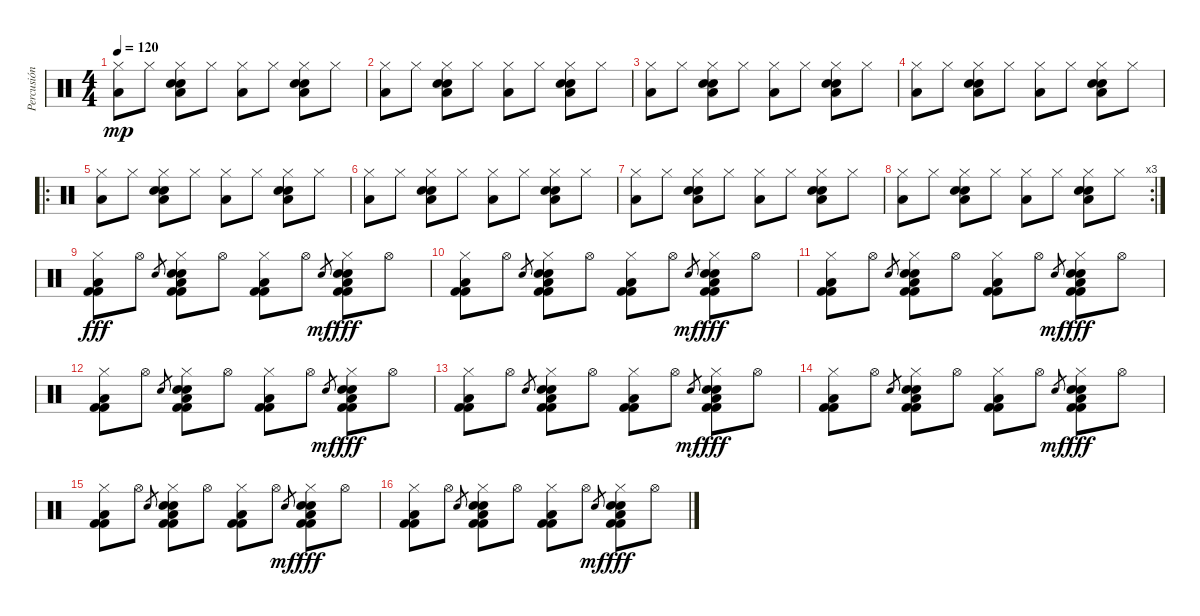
\track ("Percusión I" "Percusión ") {instrument percussion}
\staff {score}
\articulation defaults
\ts (4 4)
\tempo 120
\clef neutral
\ks c
("Hi-Hat (closed)" "Low Floor Tom (hit)").8{dy mp} "Hi-Hat (closed)".8 ("Hi-Hat (closed)" "Electric Snare (hit)" "Hand Clap (hit)" "Low Floor Tom (hit)").8 "Hi-Hat (closed)".8 ("Hi-Hat (closed)" "Low Floor Tom (hit)").8 "Hi-Hat (closed)".8 ("Hi-Hat (closed)" "Electric Snare (hit)" "Hand Clap (hit)" "Low Floor Tom (hit)").8 "Hi-Hat (closed)".8 |
("Hi-Hat (closed)" "Low Floor Tom (hit)").8 "Hi-Hat (closed)".8 ("Hi-Hat (closed)" "Electric Snare (hit)" "Hand Clap (hit)" "Low Floor Tom (hit)").8 "Hi-Hat (closed)".8 ("Hi-Hat (closed)" "Low Floor Tom (hit)").8 "Hi-Hat (closed)".8 ("Hi-Hat (closed)" "Electric Snare (hit)" "Hand Clap (hit)" "Low Floor Tom (hit)").8 "Hi-Hat (closed)".8 |
("Hi-Hat (closed)" "Low Floor Tom (hit)").8 "Hi-Hat (closed)".8 ("Hi-Hat (closed)" "Electric Snare (hit)" "Hand Clap (hit)" "Low Floor Tom (hit)").8 "Hi-Hat (closed)".8 ("Hi-Hat (closed)" "Low Floor Tom (hit)").8 "Hi-Hat (closed)".8 ("Hi-Hat (closed)" "Electric Snare (hit)" "Hand Clap (hit)" "Low Floor Tom (hit)").8 "Hi-Hat (closed)".8 |
("Hi-Hat (closed)" "Low Floor Tom (hit)").8 "Hi-Hat (closed)".8 ("Hi-Hat (closed)" "Electric Snare (hit)" "Hand Clap (hit)" "Low Floor Tom (hit)").8 "Hi-Hat (closed)".8 ("Hi-Hat (closed)" "Low Floor Tom (hit)").8 "Hi-Hat (closed)".8 ("Hi-Hat (closed)" "Electric Snare (hit)" "Hand Clap (hit)" "Low Floor Tom (hit)").8 "Hi-Hat (closed)".8 |
\ro
("Hi-Hat (closed)" "Low Floor Tom (hit)").8 "Hi-Hat (closed)".8 ("Hi-Hat (closed)" "Electric Snare (hit)" "Hand Clap (hit)" "Low Floor Tom (hit)").8 "Hi-Hat (closed)".8 ("Hi-Hat (closed)" "Low Floor Tom (hit)").8 "Hi-Hat (closed)".8 ("Hi-Hat (closed)" "Electric Snare (hit)" "Hand Clap (hit)" "Low Floor Tom (hit)").8 "Hi-Hat (closed)".8 |
("Hi-Hat (closed)" "Low Floor Tom (hit)").8 "Hi-Hat (closed)".8 ("Hi-Hat (closed)" "Electric Snare (hit)" "Hand Clap (hit)" "Low Floor Tom (hit)").8 "Hi-Hat (closed)".8 ("Hi-Hat (closed)" "Low Floor Tom (hit)").8 "Hi-Hat (closed)".8 ("Hi-Hat (closed)" "Electric Snare (hit)" "Hand Clap (hit)" "Low Floor Tom (hit)").8 "Hi-Hat (closed)".8 |
("Hi-Hat (closed)" "Low Floor Tom (hit)").8 "Hi-Hat (closed)".8 ("Hi-Hat (closed)" "Electric Snare (hit)" "Hand Clap (hit)" "Low Floor Tom (hit)").8 "Hi-Hat (closed)".8 ("Hi-Hat (closed)" "Low Floor Tom (hit)").8 "Hi-Hat (closed)".8 ("Hi-Hat (closed)" "Electric Snare (hit)" "Hand Clap (hit)" "Low Floor Tom (hit)").8 "Hi-Hat (closed)".8 |
\rc 3
("Hi-Hat (closed)" "Low Floor Tom (hit)").8 "Hi-Hat (closed)".8 ("Hi-Hat (closed)" "Electric Snare (hit)" "Hand Clap (hit)" "Low Floor Tom (hit)").8 "Hi-Hat (closed)".8 ("Hi-Hat (closed)" "Low Floor Tom (hit)").8 "Hi-Hat (closed)".8 ("Hi-Hat (closed)" "Electric Snare (hit)" "Hand Clap (hit)" "Low Floor Tom (hit)").8 "Hi-Hat (closed)".8 |
("Kick (hit) 2" "Hi-Hat (closed)" "Low Floor Tom (hit)" "Kick (hit) 2").8{dy fff} "Hi-Hat (open)".8 "Hand Clap (hit)".8{gr} ("Kick (hit) 2" "Hi-Hat (closed)" "Electric Snare (hit)" "Hand Clap (hit)" "Low Floor Tom (hit)" "Kick (hit) 2").8 "Hi-Hat (open)".8 ("Kick (hit) 2" "Hi-Hat (closed)" "Low Floor Tom (hit)" "Kick (hit) 2").8 "Hi-Hat (open)".8 "Hand Clap (hit)".8{gr dy mf} ("Kick (hit) 2" "Hi-Hat (closed)" "Electric Snare (hit)" "Hand Clap (hit)" "Low Floor Tom (hit)" "Kick (hit) 2").8{dy fff} "Hi-Hat (open)".8 |
("Kick (hit) 2" "Hi-Hat (closed)" "Low Floor Tom (hit)" "Kick (hit) 2").8 "Hi-Hat (open)".8 "Hand Clap (hit)".8{gr} ("Kick (hit) 2" "Hi-Hat (closed)" "Electric Snare (hit)" "Hand Clap (hit)" "Low Floor Tom (hit)" "Kick (hit) 2").8 "Hi-Hat (open)".8 ("Kick (hit) 2" "Hi-Hat (closed)" "Low Floor Tom (hit)" "Kick (hit) 2").8 "Hi-Hat (open)".8 "Hand Clap (hit)".8{gr dy mf} ("Kick (hit) 2" "Hi-Hat (closed)" "Electric Snare (hit)" "Hand Clap (hit)" "Low Floor Tom (hit)" "Kick (hit) 2").8{dy fff} "Hi-Hat (open)".8 |
("Kick (hit) 2" "Hi-Hat (closed)" "Low Floor Tom (hit)" "Kick (hit) 2").8 "Hi-Hat (open)".8 "Hand Clap (hit)".8{gr} ("Kick (hit) 2" "Hi-Hat (closed)" "Electric Snare (hit)" "Hand Clap (hit)" "Low Floor Tom (hit)" "Kick (hit) 2").8 "Hi-Hat (open)".8 ("Kick (hit) 2" "Hi-Hat (closed)" "Low Floor Tom (hit)" "Kick (hit) 2").8 "Hi-Hat (open)".8 "Hand Clap (hit)".8{gr dy mf} ("Kick (hit) 2" "Hi-Hat (closed)" "Electric Snare (hit)" "Hand Clap (hit)" "Low Floor Tom (hit)" "Kick (hit) 2").8{dy fff} "Hi-Hat (open)".8 |
("Kick (hit) 2" "Hi-Hat (closed)" "Low Floor Tom (hit)" "Kick (hit) 2").8 "Hi-Hat (open)".8 "Hand Clap (hit)".8{gr} ("Kick (hit) 2" "Hi-Hat (closed)" "Electric Snare (hit)" "Hand Clap (hit)" "Low Floor Tom (hit)" "Kick (hit) 2").8 "Hi-Hat (open)".8 ("Kick (hit) 2" "Hi-Hat (closed)" "Low Floor Tom (hit)" "Kick (hit) 2").8 "Hi-Hat (open)".8 "Hand Clap (hit)".8{gr dy mf} ("Kick (hit) 2" "Hi-Hat (closed)" "Electric Snare (hit)" "Hand Clap (hit)" "Low Floor Tom (hit)" "Kick (hit) 2").8{dy fff} "Hi-Hat (open)".8 |
("Kick (hit) 2" "Hi-Hat (closed)" "Low Floor Tom (hit)" "Kick (hit) 2").8 "Hi-Hat (open)".8 "Hand Clap (hit)".8{gr} ("Kick (hit) 2" "Hi-Hat (closed)" "Electric Snare (hit)" "Hand Clap (hit)" "Low Floor Tom (hit)" "Kick (hit) 2").8 "Hi-Hat (open)".8 ("Kick (hit) 2" "Hi-Hat (closed)" "Low Floor Tom (hit)" "Kick (hit) 2").8 "Hi-Hat (open)".8 "Hand Clap (hit)".8{gr dy mf} ("Kick (hit) 2" "Hi-Hat (closed)" "Electric Snare (hit)" "Hand Clap (hit)" "Low Floor Tom (hit)" "Kick (hit) 2").8{dy fff} "Hi-Hat (open)".8 |
("Kick (hit) 2" "Hi-Hat (closed)" "Low Floor Tom (hit)" "Kick (hit) 2").8 "Hi-Hat (open)".8 "Hand Clap (hit)".8{gr} ("Kick (hit) 2" "Hi-Hat (closed)" "Electric Snare (hit)" "Hand Clap (hit)" "Low Floor Tom (hit)" "Kick (hit) 2").8 "Hi-Hat (open)".8 ("Kick (hit) 2" "Hi-Hat (closed)" "Low Floor Tom (hit)" "Kick (hit) 2").8 "Hi-Hat (open)".8 "Hand Clap (hit)".8{gr dy mf} ("Kick (hit) 2" "Hi-Hat (closed)" "Electric Snare (hit)" "Hand Clap (hit)" "Low Floor Tom (hit)" "Kick (hit) 2").8{dy fff} "Hi-Hat (open)".8 |
("Kick (hit) 2" "Hi-Hat (closed)" "Low Floor Tom (hit)" "Kick (hit) 2").8 "Hi-Hat (open)".8 "Hand Clap (hit)".8{gr} ("Kick (hit) 2" "Hi-Hat (closed)" "Electric Snare (hit)" "Hand Clap (hit)" "Low Floor Tom (hit)" "Kick (hit) 2").8 "Hi-Hat (open)".8 ("Kick (hit) 2" "Hi-Hat (closed)" "Low Floor Tom (hit)" "Kick (hit) 2").8 "Hi-Hat (open)".8 "Hand Clap (hit)".8{gr dy mf} ("Kick (hit) 2" "Hi-Hat (closed)" "Electric Snare (hit)" "Hand Clap (hit)" "Low Floor Tom (hit)" "Kick (hit) 2").8{dy fff} "Hi-Hat (open)".8 |
("Kick (hit) 2" "Hi-Hat (closed)" "Low Floor Tom (hit)" "Kick (hit) 2").8 "Hi-Hat (open)".8 "Hand Clap (hit)".8{gr} ("Kick (hit) 2" "Hi-Hat (closed)" "Electric Snare (hit)" "Hand Clap (hit)" "Low Floor Tom (hit)" "Kick (hit) 2").8 "Hi-Hat (open)".8 ("Kick (hit) 2" "Hi-Hat (closed)" "Low Floor Tom (hit)" "Kick (hit) 2").8 "Hi-Hat (open)".8 "Hand Clap (hit)".8{gr dy mf} ("Kick (hit) 2" "Hi-Hat (closed)" "Electric Snare (hit)" "Hand Clap (hit)" "Low Floor Tom (hit)" "Kick (hit) 2").8{dy fff} "Hi-Hat (open)".8
